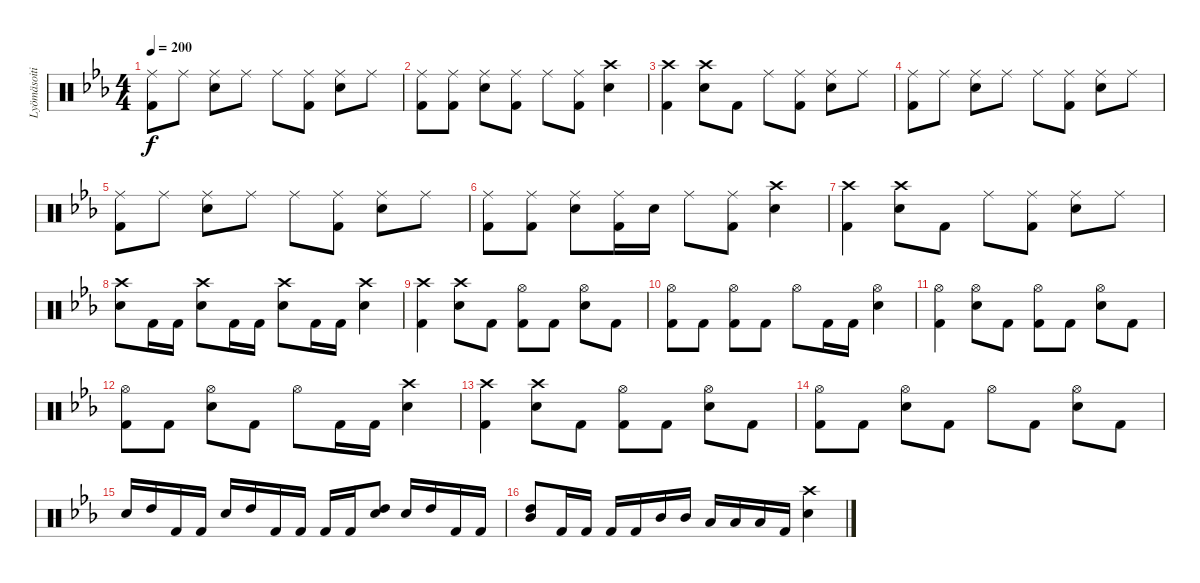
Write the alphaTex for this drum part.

\track ("Lyömäsoitin" "Lyömäsoiti") {instrument percussion}
\staff {score}
\articulation defaults
\ts (4 4)
\tempo 200
\clef neutral
\ks eb
("Ride (middle)" "Kick (hit) 2").8{dy f} "Ride (middle)".8 ("Ride (middle)" "Snare (hit) 2").8 "Ride (middle)".8 "Ride (middle)".8 ("Ride (middle)" "Kick (hit) 2").8 ("Ride (middle)" "Snare (hit) 2").8 "Ride (middle)".8 |
("Ride (middle)" "Kick (hit) 2").8 ("Ride (middle)" "Kick (hit) 2").8 ("Ride (middle)" "Snare (hit) 2").8 ("Ride (middle)" "Kick (hit) 2").8 "Ride (middle)".8 ("Ride (middle)" "Kick (hit) 2").8 ("Crash high (hit)" "Snare (hit) 2").4 |
("Crash high (hit)" "Kick (hit) 2").4 ("Crash high (hit)" "Snare (hit) 2").8 "Kick (hit) 2".8 "Ride (middle)".8 ("Ride (middle)" "Kick (hit) 2").8 ("Ride (middle)" "Snare (hit) 2").8 "Ride (middle)".8 |
("Ride (middle)" "Kick (hit) 2").8 "Ride (middle)".8 ("Ride (middle)" "Snare (hit) 2").8 "Ride (middle)".8 "Ride (middle)".8 ("Ride (middle)" "Kick (hit) 2").8 ("Ride (middle)" "Snare (hit) 2").8 "Ride (middle)".8 |
("Ride (middle)" "Kick (hit) 2").8 "Ride (middle)".8 ("Ride (middle)" "Snare (hit) 2").8 "Ride (middle)".8 "Ride (middle)".8 ("Ride (middle)" "Kick (hit) 2").8 ("Ride (middle)" "Snare (hit) 2").8 "Ride (middle)".8 |
("Ride (middle)" "Kick (hit) 2").8 ("Ride (middle)" "Kick (hit) 2").8 ("Ride (middle)" "Snare (hit) 2").8 ("Ride (middle)" "Kick (hit) 2").16 "Snare (hit) 2".16 "Ride (middle)".8 ("Ride (middle)" "Kick (hit) 2").8 ("Crash high (hit)" "Snare (hit) 2").4 |
("Crash high (hit)" "Kick (hit) 2").4 ("Crash high (hit)" "Snare (hit) 2").8 "Kick (hit) 2".8 "Ride (middle)".8 ("Ride (middle)" "Kick (hit) 2").8 ("Ride (middle)" "Snare (hit) 2").8 "Ride (middle)".8 |
("Crash high (hit)" "Snare (hit) 2").8 "Kick (hit) 2".16 "Kick (hit) 2".16 ("Crash high (hit)" "Snare (hit) 2").8 "Kick (hit) 2".16 "Kick (hit) 2".16 ("Crash high (hit)" "Snare (hit) 2").8 "Kick (hit) 2".16 "Kick (hit) 2".16 ("Crash high (hit)" "Snare (hit) 2").4 |
("Crash high (hit)" "Kick (hit) 2").4 ("Crash high (hit)" "Snare (hit) 2").8 "Kick (hit) 2".8 ("Hi-Hat (open)" "Kick (hit) 2").8 "Kick (hit) 2".8 ("Hi-Hat (open)" "Snare (hit) 2").8 "Kick (hit) 2".8 |
("Hi-Hat (open)" "Kick (hit) 2").8 "Kick (hit) 2".8 ("Hi-Hat (open)" "Kick (hit) 2").8 "Kick (hit) 2".8 "Hi-Hat (open)".8 "Kick (hit) 2".16 "Kick (hit) 2".16 ("Hi-Hat (open)" "Snare (hit) 2").4 |
("Hi-Hat (open)" "Kick (hit) 2").4 ("Hi-Hat (open)" "Snare (hit) 2").8 "Kick (hit) 2".8 ("Hi-Hat (open)" "Kick (hit) 2").8 "Kick (hit) 2".8 ("Hi-Hat (open)" "Snare (hit) 2").8 "Kick (hit) 2".8 |
("Hi-Hat (open)" "Kick (hit) 2").8 "Kick (hit) 2".8 ("Hi-Hat (open)" "Snare (hit) 2").8 "Kick (hit) 2".8 "Hi-Hat (open)".8 "Kick (hit) 2".16 "Kick (hit) 2".16 ("Crash high (hit)" "Snare (hit) 2").4 |
("Crash high (hit)" "Kick (hit) 2").4 ("Crash high (hit)" "Snare (hit) 2").8 "Kick (hit) 2".8 ("Hi-Hat (open)" "Kick (hit) 2").8 "Kick (hit) 2".8 ("Hi-Hat (open)" "Snare (hit) 2").8 "Kick (hit) 2".8 |
("Hi-Hat (open)" "Kick (hit) 2").8 "Kick (hit) 2".8 ("Hi-Hat (open)" "Snare (hit) 2").8 "Kick (hit) 2".8 "Hi-Hat (open)".8 "Kick (hit) 2".8 ("Hi-Hat (open)" "Snare (hit) 2").8 "Kick (hit) 2".8 |
"Snare (hit) 2".16 "High Tom (hit)".16 "Kick (hit) 2".16 "Kick (hit) 2".16 "Snare (hit) 2".16 "High Tom (hit)".16 "Kick (hit) 2".16 "Kick (hit) 2".16 "Kick (hit) 2".16 "Kick (hit) 2".16 ("High Tom (hit)" "Snare (hit) 2").8 "Snare (hit) 2".16 "High Tom (hit)".16 "Kick (hit) 2".16 "Kick (hit) 2".16 |
("High Tom (hit)" "Mid Tom (hit)").8 "Kick (hit) 2".16 "Kick (hit) 2".16 "Kick (hit) 2".16 "Kick (hit) 2".16 "Mid Tom (hit)".16 "Mid Tom (hit)".16 "Low Tom (hit)".16 "Low Tom (hit)".16 "Low Tom (hit)".16 "Kick (hit) 2".16 ("Crash high (hit)" "Snare (hit) 2").4
